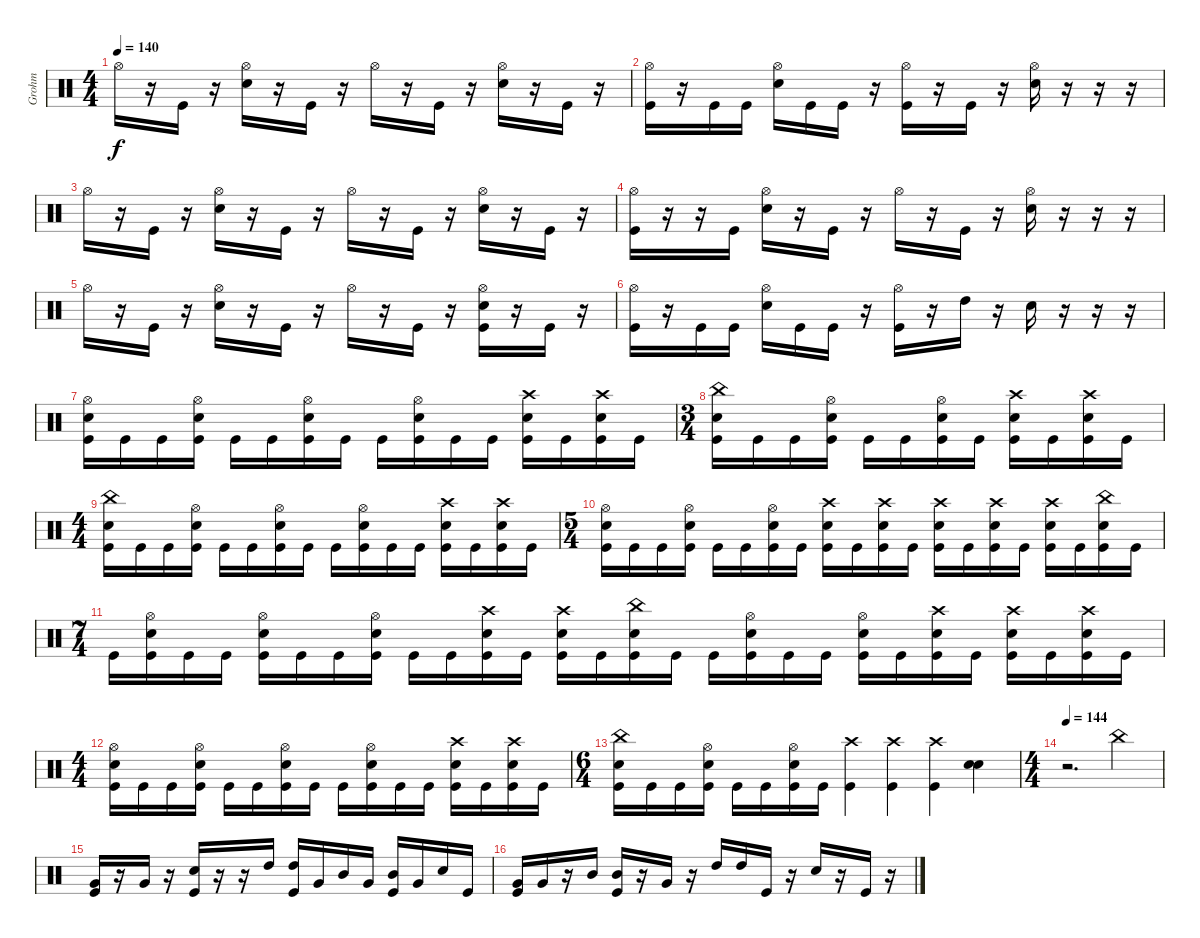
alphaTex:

\track ("Grohm" "Grohm") {instrument percussion}
\staff {score}
\articulation defaults
\ts (4 4)
\tempo 140
\clef neutral
\ks c "Hi-Hat (open)".16{dy f}
r.16 "Kick (hit)".16 r.16 ("Hi-Hat (open)" "Snare (hit) 2").16 r.16 "Kick (hit)".16 r.16 "Hi-Hat (open)".16 r.16 "Kick (hit)".16 r.16 ("Hi-Hat (open)" "Snare (hit) 2").16 r.16 "Kick (hit)".16 r.16 |
("Hi-Hat (open)" "Kick (hit)").16 r.16 "Kick (hit)".16 "Kick (hit)".16 ("Hi-Hat (open)" "Snare (hit) 2").16 "Kick (hit)".16 "Kick (hit)".16 r.16 ("Hi-Hat (open)" "Kick (hit)").16 r.16 "Kick (hit)".16 r.16 ("Hi-Hat (open)" "Snare (hit) 2").16 r.16 r.16 r.16 |
"Hi-Hat (open)".16 r.16 "Kick (hit)".16 r.16 ("Hi-Hat (open)" "Snare (hit) 2").16 r.16 "Kick (hit)".16 r.16 "Hi-Hat (open)".16 r.16 "Kick (hit)".16 r.16 ("Hi-Hat (open)" "Snare (hit) 2").16 r.16 "Kick (hit)".16 r.16 |
("Hi-Hat (open)" "Kick (hit)").16 r.16 r.16 "Kick (hit)".16 ("Hi-Hat (open)" "Snare (hit) 2").16 r.16 "Kick (hit)".16 r.16 "Hi-Hat (open)".16 r.16 "Kick (hit)".16 r.16 ("Hi-Hat (open)" "Snare (hit) 2").16 r.16 r.16 r.16 |
"Hi-Hat (open)".16 r.16 "Kick (hit)".16 r.16 ("Hi-Hat (open)" "Snare (hit) 2").16 r.16 "Kick (hit)".16 r.16 "Hi-Hat (open)".16 r.16 "Kick (hit)".16 r.16 ("Hi-Hat (open)" "Snare (hit) 2" "Kick (hit)").16 r.16 "Kick (hit)".16 r.16 |
("Hi-Hat (open)" "Kick (hit)").16 r.16 "Kick (hit)".16 "Kick (hit)".16 ("Hi-Hat (open)" "Snare (hit) 2").16 "Kick (hit)".16 "Kick (hit)".16 r.16 ("Hi-Hat (open)" "Kick (hit)").16 r.16 "High Tom (hit)".16 r.16 "Snare (hit) 2".16 r.16 r.16 r.16 |
("Hi-Hat (open)" "Snare (hit) 2" "Kick (hit)").16 "Kick (hit)".16 "Kick (hit)".16 ("Hi-Hat (open)" "Snare (hit) 2" "Kick (hit)").16 "Kick (hit)".16 "Kick (hit)".16 ("Hi-Hat (open)" "Snare (hit) 2" "Kick (hit)").16 "Kick (hit)".16 "Kick (hit)".16 ("Hi-Hat (open)" "Snare (hit) 2" "Kick (hit)").16 "Kick (hit)".16 "Kick (hit)".16 ("Crash high (hit)" "Snare (hit) 2" "Kick (hit)").16 "Kick (hit)".16 ("Crash high (hit)" "Snare (hit) 2" "Kick (hit)").16 "Kick (hit)".16 |
\ts (3 4)
("China (hit)" "Snare (hit) 2" "Kick (hit)").16 "Kick (hit)".16 "Kick (hit)".16 ("Hi-Hat (open)" "Snare (hit) 2" "Kick (hit)").16 "Kick (hit)".16 "Kick (hit)".16 ("Hi-Hat (open)" "Snare (hit) 2" "Kick (hit)").16 "Kick (hit)".16 ("Crash high (hit)" "Snare (hit) 2" "Kick (hit)").16 "Kick (hit)".16 ("Crash high (hit)" "Snare (hit) 2" "Kick (hit)").16 "Kick (hit)".16 |
\ts (4 4)
("China (hit)" "Snare (hit) 2" "Kick (hit)").16 "Kick (hit)".16 "Kick (hit)".16 ("Hi-Hat (open)" "Snare (hit) 2" "Kick (hit)").16 "Kick (hit)".16 "Kick (hit)".16 ("Hi-Hat (open)" "Snare (hit) 2" "Kick (hit)").16 "Kick (hit)".16 "Kick (hit)".16 ("Hi-Hat (open)" "Snare (hit) 2" "Kick (hit)").16 "Kick (hit)".16 "Kick (hit)".16 ("Crash high (hit)" "Snare (hit) 2" "Kick (hit)").16 "Kick (hit)".16 ("Crash high (hit)" "Snare (hit) 2" "Kick (hit)").16 "Kick (hit)".16 |
\ts (5 4)
("Hi-Hat (open)" "Snare (hit) 2" "Kick (hit)").16 "Kick (hit)".16 "Kick (hit)".16 ("Hi-Hat (open)" "Snare (hit) 2" "Kick (hit)").16 "Kick (hit)".16 "Kick (hit)".16 ("Hi-Hat (open)" "Snare (hit) 2" "Kick (hit)").16 "Kick (hit)".16 ("Crash high (hit)" "Snare (hit) 2" "Kick (hit)").16 "Kick (hit)".16 ("Crash high (hit)" "Snare (hit) 2" "Kick (hit)").16 "Kick (hit)".16 ("Crash high (hit)" "Snare (hit) 2" "Kick (hit)").16 "Kick (hit)".16 ("Crash high (hit)" "Snare (hit) 2" "Kick (hit)").16 "Kick (hit)".16 ("Crash high (hit)" "Snare (hit) 2" "Kick (hit)").16 "Kick (hit)".16 ("China (hit)" "Snare (hit) 2" "Kick (hit)").16 "Kick (hit)".16 |
\ts (7 4)
"Kick (hit)".16 ("Hi-Hat (open)" "Snare (hit) 2" "Kick (hit)").16 "Kick (hit)".16 "Kick (hit)".16 ("Hi-Hat (open)" "Snare (hit) 2" "Kick (hit)").16 "Kick (hit)".16 "Kick (hit)".16 ("Hi-Hat (open)" "Snare (hit) 2" "Kick (hit)").16 "Kick (hit)".16 "Kick (hit)".16 ("Crash high (hit)" "Snare (hit) 2" "Kick (hit)").16 "Kick (hit)".16 ("Crash high (hit)" "Snare (hit) 2" "Kick (hit)").16 "Kick (hit)".16 ("China (hit)" "Snare (hit) 2" "Kick (hit)").16 "Kick (hit)".16 "Kick (hit)".16 ("Hi-Hat (open)" "Snare (hit) 2" "Kick (hit)").16 "Kick (hit)".16 "Kick (hit)".16 ("Hi-Hat (open)" "Snare (hit) 2" "Kick (hit)").16 "Kick (hit)".16 ("Crash high (hit)" "Snare (hit) 2" "Kick (hit)").16 "Kick (hit)".16 ("Crash high (hit)" "Snare (hit) 2" "Kick (hit)").16 "Kick (hit)".16 ("Crash high (hit)" "Snare (hit) 2" "Kick (hit)").16 "Kick (hit)".16 |
\ts (4 4)
("Hi-Hat (open)" "Snare (hit) 2" "Kick (hit)").16 "Kick (hit)".16 "Kick (hit)".16 ("Hi-Hat (open)" "Snare (hit) 2" "Kick (hit)").16 "Kick (hit)".16 "Kick (hit)".16 ("Hi-Hat (open)" "Snare (hit) 2" "Kick (hit)").16 "Kick (hit)".16 "Kick (hit)".16 ("Hi-Hat (open)" "Snare (hit) 2" "Kick (hit)").16 "Kick (hit)".16 "Kick (hit)".16 ("Crash high (hit)" "Snare (hit) 2" "Kick (hit)").16 "Kick (hit)".16 ("Crash high (hit)" "Snare (hit) 2" "Kick (hit)").16 "Kick (hit)".16 |
\ts (6 4)
("China (hit)" "Snare (hit) 2" "Kick (hit)").16 "Kick (hit)".16 "Kick (hit)".16 ("Hi-Hat (open)" "Snare (hit) 2" "Kick (hit)").16 "Kick (hit)".16 "Kick (hit)".16 ("Hi-Hat (open)" "Snare (hit) 2" "Kick (hit)").16 "Kick (hit)".16 ("Crash high (hit)" "Kick (hit)").4 ("Crash high (hit)" "Kick (hit)").4 ("Crash high (hit)" "Kick (hit)").4 ("Snare (hit) 2" "Snare (hit) 2").4 |
\ts (4 4)
\tempo 144
r.2{d} "China (hit)".4 |
("Very Low Tom (hit)" "Kick (hit)").16 r.16 "Very Low Tom (hit)".16 r.16 ("Snare (hit) 2" "Kick (hit)").16 r.16 r.16 "High Tom (hit)".16 ("High Tom (hit)" "Kick (hit)").16 "Very Low Tom (hit)".16 "Mid Tom (hit)".16 "Very Low Tom (hit)".16 ("Mid Tom (hit)" "Kick (hit)").16 "Very Low Tom (hit)".16 "Snare (hit) 2".16 "Kick (hit)".16 |
("Very Low Tom (hit)" "Kick (hit)").16 "Very Low Tom (hit)".16 r.16 "Mid Tom (hit)".16 ("Mid Tom (hit)" "Kick (hit)").16 r.16 "Very Low Tom (hit)".16 r.16 "High Tom (hit)".16 "High Tom (hit)".16 "Kick (hit)".16 r.16 "Snare (hit) 2".16 r.16 "Kick (hit)".16 r.16
